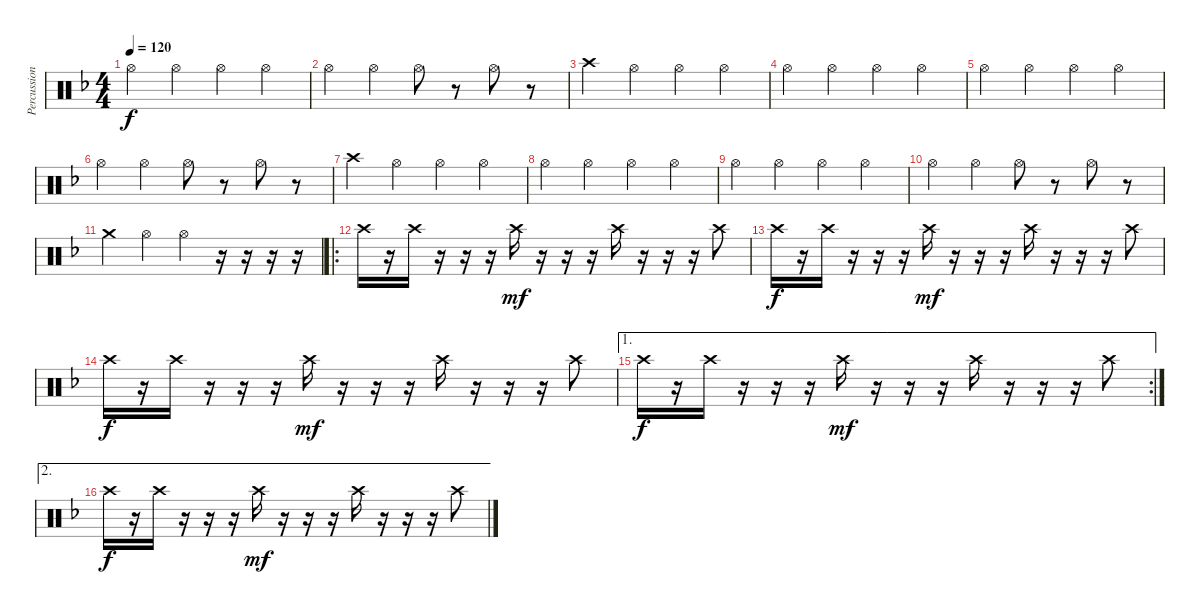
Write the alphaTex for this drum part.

\track ("Percussion" "Percussion") {instrument percussion}
\staff {score}
\articulation defaults
\ts (4 4)
\tempo 120
\clef neutral
\ks f "Hi-Hat (open)".4{dy f} "Hi-Hat (open)".4 "Hi-Hat (open)".4 "Hi-Hat (open)".4
|
"Hi-Hat (open)".4 "Hi-Hat (open)".4 "Hi-Hat (open)".8 r.8 "Hi-Hat (open)".8 r.8 |
"Crash high (hit)".4 "Hi-Hat (open)".4 "Hi-Hat (open)".4 "Hi-Hat (open)".4 |
"Hi-Hat (open)".4 "Hi-Hat (open)".4 "Hi-Hat (open)".4 "Hi-Hat (open)".4 |
"Hi-Hat (open)".4 "Hi-Hat (open)".4 "Hi-Hat (open)".4 "Hi-Hat (open)".4 |
"Hi-Hat (open)".4 "Hi-Hat (open)".4 "Hi-Hat (open)".8 r.8 "Hi-Hat (open)".8 r.8 |
"Crash high (hit)".4 "Hi-Hat (open)".4 "Hi-Hat (open)".4 "Hi-Hat (open)".4 |
"Hi-Hat (open)".4 "Hi-Hat (open)".4 "Hi-Hat (open)".4 "Hi-Hat (open)".4 |
"Hi-Hat (open)".4 "Hi-Hat (open)".4 "Hi-Hat (open)".4 "Hi-Hat (open)".4 |
"Hi-Hat (open)".4 "Hi-Hat (open)".4 "Hi-Hat (open)".8 r.8 "Hi-Hat (open)".8 r.8 |
"Crash medium (hit)".4 "Hi-Hat (open)".4 "Hi-Hat (open)".4 r.16 r.16 r.16 r.16 |
\ro "Crash high (hit)".16
r.16 "Crash high (hit)".16 r.16 r.16 r.16 "Crash high (hit)".16{dy mf} r.16 r.16 r.16 "Crash high (hit)".16 r.16 r.16 r.16 "Crash high (hit)".8 |
"Crash high (hit)".16{dy f} r.16 "Crash high (hit)".16 r.16 r.16 r.16 "Crash high (hit)".16{dy mf} r.16 r.16 r.16 "Crash high (hit)".16 r.16 r.16 r.16 "Crash high (hit)".8 |
"Crash high (hit)".16{dy f} r.16 "Crash high (hit)".16 r.16 r.16 r.16 "Crash high (hit)".16{dy mf} r.16 r.16 r.16 "Crash high (hit)".16 r.16 r.16 r.16 "Crash high (hit)".8 |
\ae 1
\rc 2 "Crash high (hit)".16{dy f}
r.16 "Crash high (hit)".16 r.16 r.16 r.16 "Crash high (hit)".16{dy mf} r.16 r.16 r.16 "Crash high (hit)".16 r.16 r.16 r.16 "Crash high (hit)".8 |
\ae 2 "Crash high (hit)".16{dy f}
r.16 "Crash high (hit)".16 r.16 r.16 r.16 "Crash high (hit)".16{dy mf} r.16 r.16 r.16 "Crash high (hit)".16 r.16 r.16 r.16 "Crash high (hit)".8
